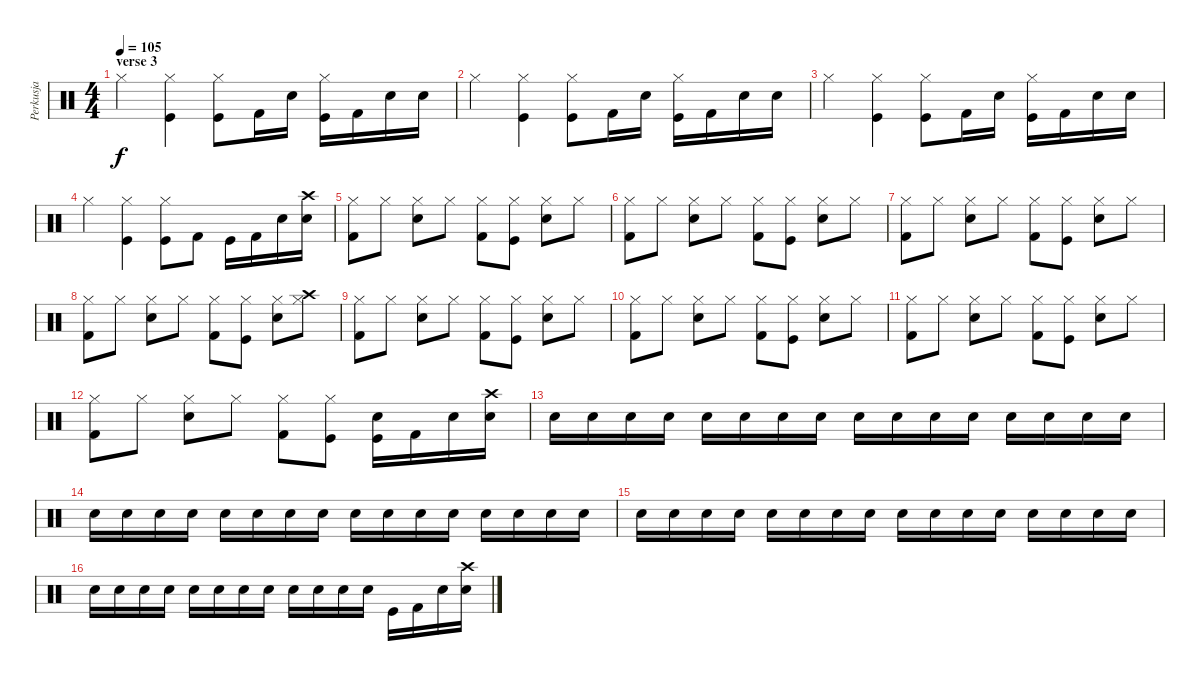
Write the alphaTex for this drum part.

\track ("Perkusja" "Perkusja") {instrument percussion}
\staff {score}
\articulation defaults
\ts (4 4)
\section ("" "verse 3")
\tempo 105
\clef neutral
\ks c "Hi-Hat (closed)".4{dy f}
("Kick (hit)" "Hi-Hat (closed)").4 ("Kick (hit)" "Hi-Hat (closed)").8 "Kick (hit) 2".16 "Snare (hit) 2".16 ("Kick (hit)" "Hi-Hat (closed)").16 "Kick (hit) 2".16 "Snare (hit) 2".16 "Electric Snare (hit)".16 |
"Hi-Hat (closed)".4 ("Kick (hit)" "Hi-Hat (closed)").4 ("Kick (hit)" "Hi-Hat (closed)").8 "Kick (hit) 2".16 "Snare (hit) 2".16 ("Kick (hit)" "Hi-Hat (closed)").16 "Kick (hit) 2".16 "Snare (hit) 2".16 "Electric Snare (hit)".16 |
"Hi-Hat (closed)".4 ("Kick (hit)" "Hi-Hat (closed)").4 ("Kick (hit)" "Hi-Hat (closed)").8 "Kick (hit) 2".16 "Snare (hit) 2".16 ("Kick (hit)" "Hi-Hat (closed)").16 "Kick (hit) 2".16 "Snare (hit) 2".16 "Electric Snare (hit)".16 |
"Hi-Hat (closed)".4 ("Kick (hit)" "Hi-Hat (closed)").4 ("Kick (hit)" "Hi-Hat (closed)").8 "Kick (hit) 2".8 "Kick (hit)".16 "Kick (hit) 2".16 "Snare (hit) 2".16 ("Crash high (hit)" "Electric Snare (hit)").16 |
("Kick (hit) 2" "Hi-Hat (closed)").8 "Hi-Hat (closed)".8 ("Snare (hit) 2" "Hi-Hat (closed)").8 "Hi-Hat (closed)".8 ("Kick (hit) 2" "Hi-Hat (closed)").8 ("Kick (hit)" "Hi-Hat (closed)").8 ("Snare (hit) 2" "Hi-Hat (closed)").8 "Hi-Hat (closed)".8 |
("Kick (hit) 2" "Hi-Hat (closed)").8 "Hi-Hat (closed)".8 ("Snare (hit) 2" "Hi-Hat (closed)").8 "Hi-Hat (closed)".8 ("Kick (hit) 2" "Hi-Hat (closed)").8 ("Kick (hit)" "Hi-Hat (closed)").8 ("Snare (hit) 2" "Hi-Hat (closed)").8 "Hi-Hat (closed)".8 |
("Kick (hit) 2" "Hi-Hat (closed)").8 "Hi-Hat (closed)".8 ("Snare (hit) 2" "Hi-Hat (closed)").8 "Hi-Hat (closed)".8 ("Kick (hit) 2" "Hi-Hat (closed)").8 ("Kick (hit)" "Hi-Hat (closed)").8 ("Snare (hit) 2" "Hi-Hat (closed)").8 "Hi-Hat (closed)".8 |
("Kick (hit) 2" "Hi-Hat (closed)").8 "Hi-Hat (closed)".8 ("Snare (hit) 2" "Hi-Hat (closed)").8 "Hi-Hat (closed)".8 ("Kick (hit) 2" "Hi-Hat (closed)").8 ("Kick (hit)" "Hi-Hat (closed)").8 ("Snare (hit) 2" "Hi-Hat (closed)").8 ("Crash high (hit)" "Hi-Hat (closed)").8 |
("Kick (hit) 2" "Hi-Hat (closed)").8 "Hi-Hat (closed)".8 ("Snare (hit) 2" "Hi-Hat (closed)").8 "Hi-Hat (closed)".8 ("Kick (hit) 2" "Hi-Hat (closed)").8 ("Kick (hit)" "Hi-Hat (closed)").8 ("Snare (hit) 2" "Hi-Hat (closed)").8 "Hi-Hat (closed)".8 |
("Kick (hit) 2" "Hi-Hat (closed)").8 "Hi-Hat (closed)".8 ("Snare (hit) 2" "Hi-Hat (closed)").8 "Hi-Hat (closed)".8 ("Kick (hit) 2" "Hi-Hat (closed)").8 ("Kick (hit)" "Hi-Hat (closed)").8 ("Snare (hit) 2" "Hi-Hat (closed)").8 "Hi-Hat (closed)".8 |
("Kick (hit) 2" "Hi-Hat (closed)").8 "Hi-Hat (closed)".8 ("Snare (hit) 2" "Hi-Hat (closed)").8 "Hi-Hat (closed)".8 ("Kick (hit) 2" "Hi-Hat (closed)").8 ("Kick (hit)" "Hi-Hat (closed)").8 ("Snare (hit) 2" "Hi-Hat (closed)").8 "Hi-Hat (closed)".8 |
("Kick (hit) 2" "Hi-Hat (closed)").8 "Hi-Hat (closed)".8 ("Snare (hit) 2" "Hi-Hat (closed)").8 "Hi-Hat (closed)".8 ("Kick (hit) 2" "Hi-Hat (closed)").8 ("Kick (hit)" "Hi-Hat (closed)").8 ("Kick (hit)" "Snare (hit) 2").16 "Kick (hit) 2".16 "Snare (hit) 2".16 ("Electric Snare (hit)" "Crash high (hit)").16 |
"Electric Snare (hit)".16 "Electric Snare (hit)".16 "Electric Snare (hit)".16 "Electric Snare (hit)".16 "Electric Snare (hit)".16 "Electric Snare (hit)".16 "Electric Snare (hit)".16 "Electric Snare (hit)".16 "Electric Snare (hit)".16 "Electric Snare (hit)".16 "Electric Snare (hit)".16 "Electric Snare (hit)".16 "Electric Snare (hit)".16 "Electric Snare (hit)".16 "Electric Snare (hit)".16 "Electric Snare (hit)".16 |
"Electric Snare (hit)".16 "Electric Snare (hit)".16 "Electric Snare (hit)".16 "Electric Snare (hit)".16 "Electric Snare (hit)".16 "Electric Snare (hit)".16 "Electric Snare (hit)".16 "Electric Snare (hit)".16 "Electric Snare (hit)".16 "Electric Snare (hit)".16 "Electric Snare (hit)".16 "Electric Snare (hit)".16 "Electric Snare (hit)".16 "Electric Snare (hit)".16 "Electric Snare (hit)".16 "Electric Snare (hit)".16 |
"Electric Snare (hit)".16 "Electric Snare (hit)".16 "Electric Snare (hit)".16 "Electric Snare (hit)".16 "Electric Snare (hit)".16 "Electric Snare (hit)".16 "Electric Snare (hit)".16 "Electric Snare (hit)".16 "Electric Snare (hit)".16 "Electric Snare (hit)".16 "Electric Snare (hit)".16 "Electric Snare (hit)".16 "Electric Snare (hit)".16 "Electric Snare (hit)".16 "Electric Snare (hit)".16 "Electric Snare (hit)".16 |
"Electric Snare (hit)".16 "Electric Snare (hit)".16 "Electric Snare (hit)".16 "Electric Snare (hit)".16 "Electric Snare (hit)".16 "Electric Snare (hit)".16 "Electric Snare (hit)".16 "Electric Snare (hit)".16 "Electric Snare (hit)".16 "Electric Snare (hit)".16 "Electric Snare (hit)".16 "Electric Snare (hit)".16 "Kick (hit)".16 "Kick (hit) 2".16 "Snare (hit) 2".16 ("Crash high (hit)" "Electric Snare (hit)").16
